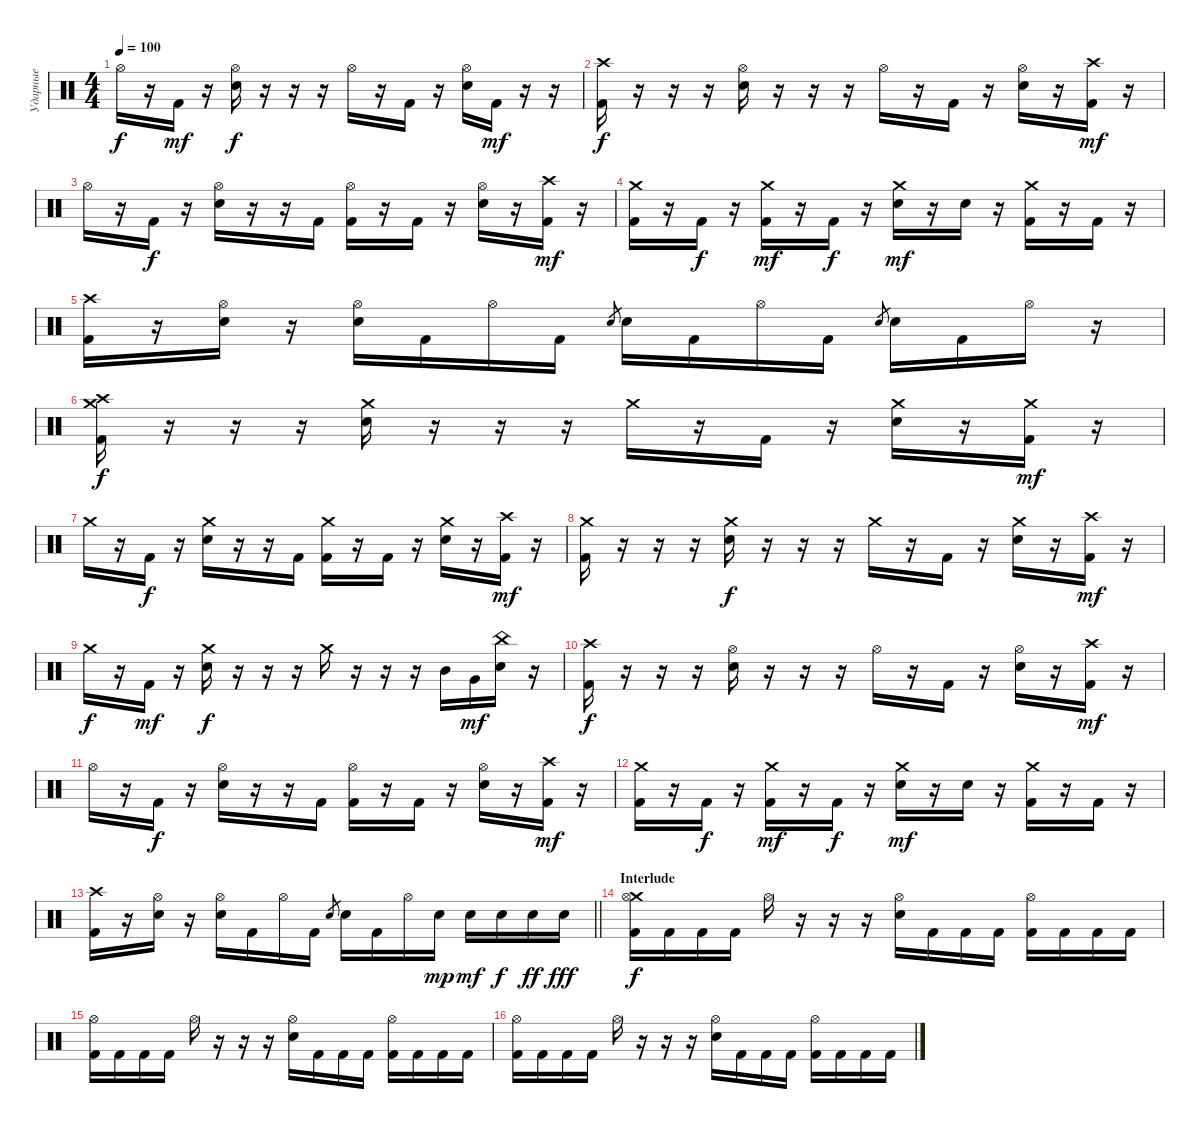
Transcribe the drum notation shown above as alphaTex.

\track ("Ударные" "Ударные") {instrument percussion}
\staff {score}
\articulation defaults
\ts (4 4)
\tempo 100
\clef neutral
\ks c "Hi-Hat (open)".16{dy f}
r.16 "Kick (hit) 2".16{dy mf} r.16 ("Hi-Hat (open)" "Electric Snare (hit)").16{dy f} r.16 r.16 r.16 "Hi-Hat (open)".16 r.16 "Kick (hit) 2".16 r.16 ("Hi-Hat (open)" "Electric Snare (hit)").16 "Kick (hit) 2".16{dy mf} r.16 r.16 |
("Crash high (hit)" "Kick (hit) 2").16{dy f} r.16 r.16 r.16 ("Hi-Hat (open)" "Electric Snare (hit)").16 r.16 r.16 r.16 "Hi-Hat (open)".16 r.16 "Kick (hit) 2".16 r.16 ("Hi-Hat (open)" "Electric Snare (hit)").16 r.16 ("Crash high (hit)" "Kick (hit) 2").16{dy mf} r.16 |
"Hi-Hat (open)".16 r.16 "Kick (hit) 2".16{dy f} r.16 ("Hi-Hat (open)" "Electric Snare (hit)").16 r.16 r.16 "Kick (hit) 2".16 ("Hi-Hat (open)" "Kick (hit) 2").16 r.16 "Kick (hit) 2".16 r.16 ("Hi-Hat (open)" "Electric Snare (hit)").16 r.16 ("Crash high (hit)" "Kick (hit) 2").16{dy mf} r.16 |
("Crash medium (hit)" "Kick (hit) 2").16 r.16 "Kick (hit) 2".16{dy f} r.16 ("Crash medium (hit)" "Kick (hit) 2").16{dy mf} r.16 "Kick (hit) 2".16{dy f} r.16 ("Crash medium (hit)" "Electric Snare (hit)").16{dy mf} r.16 "Electric Snare (hit)".16 r.16 ("Crash medium (hit)" "Kick (hit) 2").16 r.16 "Kick (hit) 2".16 r.16 |
("Crash high (hit)" "Kick (hit) 2").16 r.16 ("Hi-Hat (open)" "Electric Snare (hit)").16 r.16 ("Hi-Hat (open)" "Electric Snare (hit)").16 "Kick (hit) 2".16 "Hi-Hat (open)".16 "Kick (hit) 2".16 "Electric Snare (hit)".8{gr} "Electric Snare (hit)".16 "Kick (hit) 2".16 "Hi-Hat (open)".16 "Kick (hit) 2".16 "Electric Snare (hit)".8{gr} "Electric Snare (hit)".16 "Kick (hit) 2".16 "Hi-Hat (open)".16 r.16 |
("Crash medium (hit)" "Crash high (hit)" "Kick (hit) 2").16{dy f} r.16 r.16 r.16 ("Crash medium (hit)" "Electric Snare (hit)").16 r.16 r.16 r.16 "Crash medium (hit)".16 r.16 "Kick (hit) 2".16 r.16 ("Crash medium (hit)" "Electric Snare (hit)").16 r.16 ("Crash medium (hit)" "Kick (hit) 2").16{dy mf} r.16 |
"Crash medium (hit)".16 r.16 "Kick (hit) 2".16{dy f} r.16 ("Crash medium (hit)" "Electric Snare (hit)").16 r.16 r.16 "Kick (hit) 2".16 ("Crash medium (hit)" "Kick (hit) 2").16 r.16 "Kick (hit) 2".16 r.16 ("Crash medium (hit)" "Electric Snare (hit)").16 r.16 ("Crash high (hit)" "Kick (hit) 2").16{dy mf} r.16 |
("Crash medium (hit)" "Kick (hit) 2").16 r.16 r.16 r.16 ("Crash medium (hit)" "Electric Snare (hit)").16{dy f} r.16 r.16 r.16 "Crash medium (hit)".16 r.16 "Kick (hit) 2".16 r.16 ("Crash medium (hit)" "Electric Snare (hit)").16 r.16 ("Crash high (hit)" "Kick (hit) 2").16{dy mf} r.16 |
"Crash medium (hit)".16{dy f} r.16 "Kick (hit) 2".16{dy mf} r.16 ("Crash medium (hit)" "Electric Snare (hit)").16{dy f} r.16 r.16 r.16 "Crash medium (hit)".16 r.16 r.16 r.16 "Mid Tom (hit)".16 "Very Low Tom (hit)".16{dy mf} ("China (hit)" "Electric Snare (hit)").16 r.16 |
("Crash high (hit)" "Kick (hit) 2").16{dy f} r.16 r.16 r.16 ("Hi-Hat (open)" "Electric Snare (hit)").16 r.16 r.16 r.16 "Hi-Hat (open)".16 r.16 "Kick (hit) 2".16 r.16 ("Hi-Hat (open)" "Electric Snare (hit)").16 r.16 ("Crash high (hit)" "Kick (hit) 2").16{dy mf} r.16 |
"Hi-Hat (open)".16 r.16 "Kick (hit) 2".16{dy f} r.16 ("Hi-Hat (open)" "Electric Snare (hit)").16 r.16 r.16 "Kick (hit) 2".16 ("Hi-Hat (open)" "Kick (hit) 2").16 r.16 "Kick (hit) 2".16 r.16 ("Hi-Hat (open)" "Electric Snare (hit)").16 r.16 ("Crash high (hit)" "Kick (hit) 2").16{dy mf} r.16 |
("Crash medium (hit)" "Kick (hit) 2").16 r.16 "Kick (hit) 2".16{dy f} r.16 ("Crash medium (hit)" "Kick (hit) 2").16{dy mf} r.16 "Kick (hit) 2".16{dy f} r.16 ("Crash medium (hit)" "Electric Snare (hit)").16{dy mf} r.16 "Electric Snare (hit)".16 r.16 ("Crash medium (hit)" "Kick (hit) 2").16 r.16 "Kick (hit) 2".16 r.16 |
\barLineRight lightlight
("Crash high (hit)" "Kick (hit) 2").16 r.16 ("Hi-Hat (open)" "Electric Snare (hit)").16 r.16 ("Hi-Hat (open)" "Electric Snare (hit)").16 "Kick (hit) 2".16 "Hi-Hat (open)".16 "Kick (hit) 2".16 "Electric Snare (hit)".8{gr} "Electric Snare (hit)".16 "Kick (hit) 2".16 "Hi-Hat (open)".16 "Electric Snare (hit)".16{dy mp} "Electric Snare (hit)".16{dy mf} "Electric Snare (hit)".16{dy f} "Electric Snare (hit)".16{dy ff} "Electric Snare (hit)".16{dy fff} |
\section ("" "Interlude")
("Crash medium (hit)" "Hi-Hat (open)" "Kick (hit) 2").16{dy f} "Kick (hit) 2".16 "Kick (hit) 2".16 "Kick (hit) 2".16 "Hi-Hat (open)".16 r.16 r.16 r.16 ("Hi-Hat (open)" "Electric Snare (hit)").16 "Kick (hit) 2".16 "Kick (hit) 2".16 "Kick (hit) 2".16 ("Hi-Hat (open)" "Kick (hit) 2").16 "Kick (hit) 2".16 "Kick (hit) 2".16 "Kick (hit) 2".16 |
("Hi-Hat (open)" "Kick (hit) 2").16 "Kick (hit) 2".16 "Kick (hit) 2".16 "Kick (hit) 2".16 "Hi-Hat (open)".16 r.16 r.16 r.16 ("Hi-Hat (open)" "Electric Snare (hit)").16 "Kick (hit) 2".16 "Kick (hit) 2".16 "Kick (hit) 2".16 ("Hi-Hat (open)" "Kick (hit) 2").16 "Kick (hit) 2".16 "Kick (hit) 2".16 "Kick (hit) 2".16 |
("Hi-Hat (open)" "Kick (hit) 2").16 "Kick (hit) 2".16 "Kick (hit) 2".16 "Kick (hit) 2".16 "Hi-Hat (open)".16 r.16 r.16 r.16 ("Hi-Hat (open)" "Electric Snare (hit)").16 "Kick (hit) 2".16 "Kick (hit) 2".16 "Kick (hit) 2".16 ("Hi-Hat (open)" "Kick (hit) 2").16 "Kick (hit) 2".16 "Kick (hit) 2".16 "Kick (hit) 2".16
